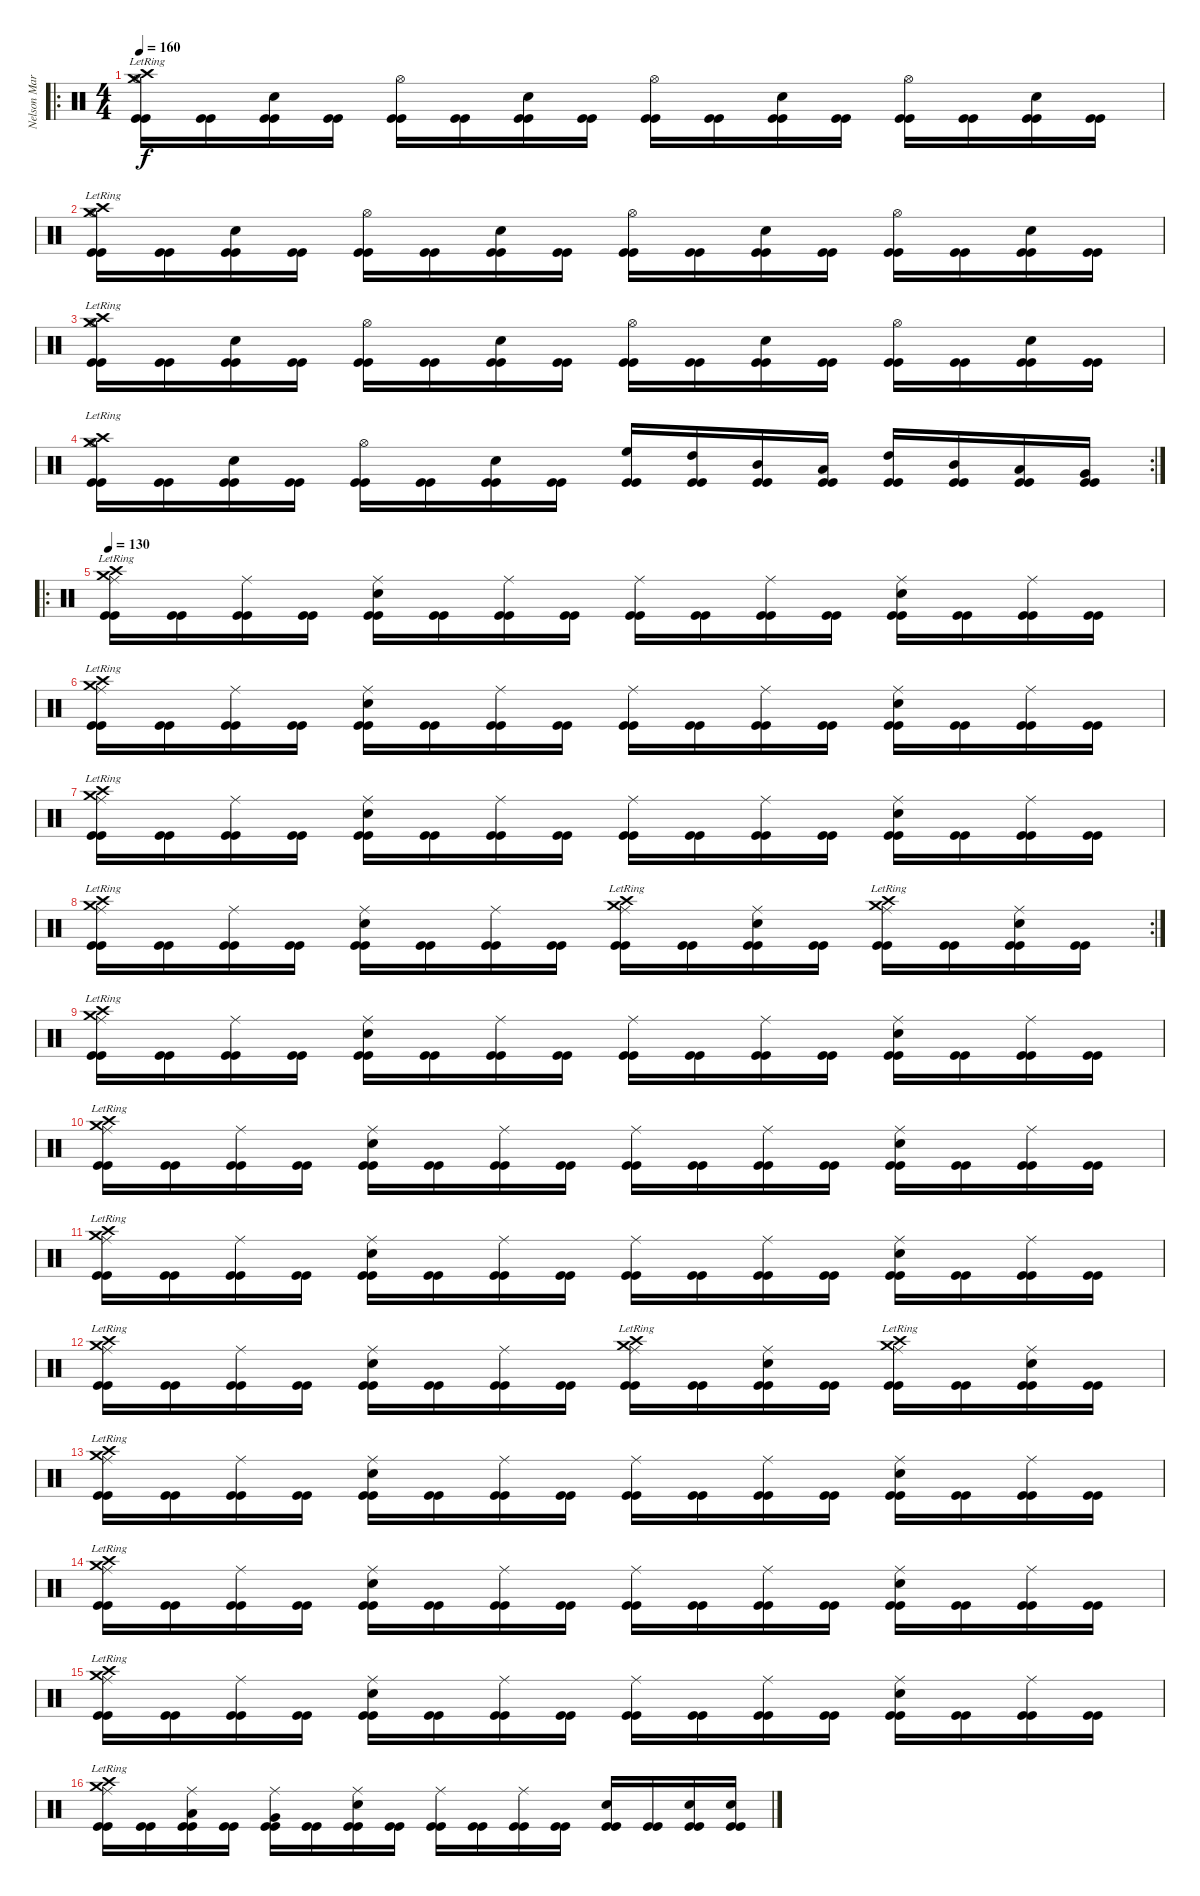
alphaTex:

\track ("Nelson Maria" "Nelson Mar") {instrument percussion}
\staff {score}
\articulation defaults
\ro
\ts (4 4)
\tempo 160
\clef neutral
\ks c
("Crash high (hit)"{lr} "Crash medium (hit)"{lr} "Hi-Hat (open)" "Kick (hit)" "Kick (hit)").16{dy f} ("Kick (hit)" "Kick (hit)").16 ("Snare (hit) 2" "Kick (hit)" "Kick (hit)").16 ("Kick (hit)" "Kick (hit)").16 ("Hi-Hat (open)" "Kick (hit)" "Kick (hit)").16 ("Kick (hit)" "Kick (hit)").16 ("Snare (hit) 2" "Kick (hit)" "Kick (hit)").16 ("Kick (hit)" "Kick (hit)").16 ("Hi-Hat (open)" "Kick (hit)" "Kick (hit)").16 ("Kick (hit)" "Kick (hit)").16 ("Snare (hit) 2" "Kick (hit)" "Kick (hit)").16 ("Kick (hit)" "Kick (hit)").16 ("Hi-Hat (open)" "Kick (hit)" "Kick (hit)").16 ("Kick (hit)" "Kick (hit)").16 ("Snare (hit) 2" "Kick (hit)" "Kick (hit)").16 ("Kick (hit)" "Kick (hit)").16 |
("Crash high (hit)"{lr} "Crash medium (hit)"{lr} "Hi-Hat (open)" "Kick (hit)" "Kick (hit)").16 ("Kick (hit)" "Kick (hit)").16 ("Snare (hit) 2" "Kick (hit)" "Kick (hit)").16 ("Kick (hit)" "Kick (hit)").16 ("Hi-Hat (open)" "Kick (hit)" "Kick (hit)").16 ("Kick (hit)" "Kick (hit)").16 ("Snare (hit) 2" "Kick (hit)" "Kick (hit)").16 ("Kick (hit)" "Kick (hit)").16 ("Hi-Hat (open)" "Kick (hit)" "Kick (hit)").16 ("Kick (hit)" "Kick (hit)").16 ("Snare (hit) 2" "Kick (hit)" "Kick (hit)").16 ("Kick (hit)" "Kick (hit)").16 ("Hi-Hat (open)" "Kick (hit)" "Kick (hit)").16 ("Kick (hit)" "Kick (hit)").16 ("Snare (hit) 2" "Kick (hit)" "Kick (hit)").16 ("Kick (hit)" "Kick (hit)").16 |
("Crash high (hit)"{lr} "Crash medium (hit)"{lr} "Hi-Hat (open)" "Kick (hit)" "Kick (hit)").16 ("Kick (hit)" "Kick (hit)").16 ("Snare (hit) 2" "Kick (hit)" "Kick (hit)").16 ("Kick (hit)" "Kick (hit)").16 ("Hi-Hat (open)" "Kick (hit)" "Kick (hit)").16 ("Kick (hit)" "Kick (hit)").16 ("Snare (hit) 2" "Kick (hit)" "Kick (hit)").16 ("Kick (hit)" "Kick (hit)").16 ("Hi-Hat (open)" "Kick (hit)" "Kick (hit)").16 ("Kick (hit)" "Kick (hit)").16 ("Snare (hit) 2" "Kick (hit)" "Kick (hit)").16 ("Kick (hit)" "Kick (hit)").16 ("Hi-Hat (open)" "Kick (hit)" "Kick (hit)").16 ("Kick (hit)" "Kick (hit)").16 ("Snare (hit) 2" "Kick (hit)" "Kick (hit)").16 ("Kick (hit)" "Kick (hit)").16 |
\rc 2
("Crash high (hit)"{lr} "Crash medium (hit)"{lr} "Hi-Hat (open)" "Kick (hit)" "Kick (hit)").16 ("Kick (hit)" "Kick (hit)").16 ("Snare (hit) 2" "Kick (hit)" "Kick (hit)").16 ("Kick (hit)" "Kick (hit)").16 ("Hi-Hat (open)" "Kick (hit)" "Kick (hit)").16 ("Kick (hit)" "Kick (hit)").16 ("Snare (hit) 2" "Kick (hit)" "Kick (hit)").16 ("Kick (hit)" "Kick (hit)").16 ("High Floor Tom (hit)" "Kick (hit)" "Kick (hit)").16 ("High Tom (hit)" "Kick (hit)" "Kick (hit)").16 ("Mid Tom (hit)" "Kick (hit)" "Kick (hit)").16 ("Low Tom (hit)" "Kick (hit)" "Kick (hit)").16 ("High Tom (hit)" "Kick (hit)" "Kick (hit)").16 ("Mid Tom (hit)" "Kick (hit)" "Kick (hit)").16 ("Low Tom (hit)" "Kick (hit)" "Kick (hit)").16 ("Very Low Tom (hit)" "Kick (hit)" "Kick (hit)").16 |
\ro
\tempo 130
("Crash high (hit)"{lr} "Crash medium (hit)"{lr} "Ride (middle)" "Kick (hit)" "Kick (hit)").16 ("Kick (hit)" "Kick (hit)").16 ("Ride (middle)" "Kick (hit)" "Kick (hit)").16 ("Kick (hit)" "Kick (hit)").16 ("Snare (hit) 2" "Ride (middle)" "Kick (hit)" "Kick (hit)").16 ("Kick (hit)" "Kick (hit)").16 ("Ride (middle)" "Kick (hit)" "Kick (hit)").16 ("Kick (hit)" "Kick (hit)").16 ("Ride (middle)" "Kick (hit)" "Kick (hit)").16 ("Kick (hit)" "Kick (hit)").16 ("Ride (middle)" "Kick (hit)" "Kick (hit)").16 ("Kick (hit)" "Kick (hit)").16 ("Snare (hit) 2" "Ride (middle)" "Kick (hit)" "Kick (hit)").16 ("Kick (hit)" "Kick (hit)").16 ("Ride (middle)" "Kick (hit)" "Kick (hit)").16 ("Kick (hit)" "Kick (hit)").16 |
("Crash high (hit)"{lr} "Crash medium (hit)"{lr} "Ride (middle)" "Kick (hit)" "Kick (hit)").16 ("Kick (hit)" "Kick (hit)").16 ("Ride (middle)" "Kick (hit)" "Kick (hit)").16 ("Kick (hit)" "Kick (hit)").16 ("Snare (hit) 2" "Ride (middle)" "Kick (hit)" "Kick (hit)").16 ("Kick (hit)" "Kick (hit)").16 ("Ride (middle)" "Kick (hit)" "Kick (hit)").16 ("Kick (hit)" "Kick (hit)").16 ("Ride (middle)" "Kick (hit)" "Kick (hit)").16 ("Kick (hit)" "Kick (hit)").16 ("Ride (middle)" "Kick (hit)" "Kick (hit)").16 ("Kick (hit)" "Kick (hit)").16 ("Snare (hit) 2" "Ride (middle)" "Kick (hit)" "Kick (hit)").16 ("Kick (hit)" "Kick (hit)").16 ("Ride (middle)" "Kick (hit)" "Kick (hit)").16 ("Kick (hit)" "Kick (hit)").16 |
("Crash high (hit)"{lr} "Crash medium (hit)"{lr} "Ride (middle)" "Kick (hit)" "Kick (hit)").16 ("Kick (hit)" "Kick (hit)").16 ("Ride (middle)" "Kick (hit)" "Kick (hit)").16 ("Kick (hit)" "Kick (hit)").16 ("Snare (hit) 2" "Ride (middle)" "Kick (hit)" "Kick (hit)").16 ("Kick (hit)" "Kick (hit)").16 ("Ride (middle)" "Kick (hit)" "Kick (hit)").16 ("Kick (hit)" "Kick (hit)").16 ("Ride (middle)" "Kick (hit)" "Kick (hit)").16 ("Kick (hit)" "Kick (hit)").16 ("Ride (middle)" "Kick (hit)" "Kick (hit)").16 ("Kick (hit)" "Kick (hit)").16 ("Snare (hit) 2" "Ride (middle)" "Kick (hit)" "Kick (hit)").16 ("Kick (hit)" "Kick (hit)").16 ("Ride (middle)" "Kick (hit)" "Kick (hit)").16 ("Kick (hit)" "Kick (hit)").16 |
\rc 2
("Crash high (hit)"{lr} "Crash medium (hit)"{lr} "Ride (middle)" "Kick (hit)" "Kick (hit)").16 ("Kick (hit)" "Kick (hit)").16 ("Ride (middle)" "Kick (hit)" "Kick (hit)").16 ("Kick (hit)" "Kick (hit)").16 ("Snare (hit) 2" "Ride (middle)" "Kick (hit)" "Kick (hit)").16 ("Kick (hit)" "Kick (hit)").16 ("Ride (middle)" "Kick (hit)" "Kick (hit)").16 ("Kick (hit)" "Kick (hit)").16 ("Crash high (hit)"{lr} "Crash medium (hit)"{lr} "Ride (middle)" "Kick (hit)" "Kick (hit)").16 ("Kick (hit)" "Kick (hit)").16 ("Snare (hit) 2" "Ride (middle)" "Kick (hit)" "Kick (hit)").16 ("Kick (hit)" "Kick (hit)").16 ("Crash high (hit)"{lr} "Crash medium (hit)"{lr} "Ride (middle)" "Kick (hit)" "Kick (hit)").16 ("Kick (hit)" "Kick (hit)").16 ("Snare (hit) 2" "Ride (middle)" "Kick (hit)" "Kick (hit)").16 ("Kick (hit)" "Kick (hit)").16 |
("Crash high (hit)"{lr} "Crash medium (hit)"{lr} "Ride (middle)" "Kick (hit)" "Kick (hit)").16 ("Kick (hit)" "Kick (hit)").16 ("Ride (middle)" "Kick (hit)" "Kick (hit)").16 ("Kick (hit)" "Kick (hit)").16 ("Snare (hit) 2" "Ride (middle)" "Kick (hit)" "Kick (hit)").16 ("Kick (hit)" "Kick (hit)").16 ("Ride (middle)" "Kick (hit)" "Kick (hit)").16 ("Kick (hit)" "Kick (hit)").16 ("Ride (middle)" "Kick (hit)" "Kick (hit)").16 ("Kick (hit)" "Kick (hit)").16 ("Ride (middle)" "Kick (hit)" "Kick (hit)").16 ("Kick (hit)" "Kick (hit)").16 ("Snare (hit) 2" "Ride (middle)" "Kick (hit)" "Kick (hit)").16 ("Kick (hit)" "Kick (hit)").16 ("Ride (middle)" "Kick (hit)" "Kick (hit)").16 ("Kick (hit)" "Kick (hit)").16 |
("Crash high (hit)"{lr} "Crash medium (hit)"{lr} "Ride (middle)" "Kick (hit)" "Kick (hit)").16 ("Kick (hit)" "Kick (hit)").16 ("Ride (middle)" "Kick (hit)" "Kick (hit)").16 ("Kick (hit)" "Kick (hit)").16 ("Snare (hit) 2" "Ride (middle)" "Kick (hit)" "Kick (hit)").16 ("Kick (hit)" "Kick (hit)").16 ("Ride (middle)" "Kick (hit)" "Kick (hit)").16 ("Kick (hit)" "Kick (hit)").16 ("Ride (middle)" "Kick (hit)" "Kick (hit)").16 ("Kick (hit)" "Kick (hit)").16 ("Ride (middle)" "Kick (hit)" "Kick (hit)").16 ("Kick (hit)" "Kick (hit)").16 ("Snare (hit) 2" "Ride (middle)" "Kick (hit)" "Kick (hit)").16 ("Kick (hit)" "Kick (hit)").16 ("Ride (middle)" "Kick (hit)" "Kick (hit)").16 ("Kick (hit)" "Kick (hit)").16 |
("Crash high (hit)"{lr} "Crash medium (hit)"{lr} "Ride (middle)" "Kick (hit)" "Kick (hit)").16 ("Kick (hit)" "Kick (hit)").16 ("Ride (middle)" "Kick (hit)" "Kick (hit)").16 ("Kick (hit)" "Kick (hit)").16 ("Snare (hit) 2" "Ride (middle)" "Kick (hit)" "Kick (hit)").16 ("Kick (hit)" "Kick (hit)").16 ("Ride (middle)" "Kick (hit)" "Kick (hit)").16 ("Kick (hit)" "Kick (hit)").16 ("Ride (middle)" "Kick (hit)" "Kick (hit)").16 ("Kick (hit)" "Kick (hit)").16 ("Ride (middle)" "Kick (hit)" "Kick (hit)").16 ("Kick (hit)" "Kick (hit)").16 ("Snare (hit) 2" "Ride (middle)" "Kick (hit)" "Kick (hit)").16 ("Kick (hit)" "Kick (hit)").16 ("Ride (middle)" "Kick (hit)" "Kick (hit)").16 ("Kick (hit)" "Kick (hit)").16 |
("Crash high (hit)"{lr} "Crash medium (hit)"{lr} "Ride (middle)" "Kick (hit)" "Kick (hit)").16 ("Kick (hit)" "Kick (hit)").16 ("Ride (middle)" "Kick (hit)" "Kick (hit)").16 ("Kick (hit)" "Kick (hit)").16 ("Snare (hit) 2" "Ride (middle)" "Kick (hit)" "Kick (hit)").16 ("Kick (hit)" "Kick (hit)").16 ("Ride (middle)" "Kick (hit)" "Kick (hit)").16 ("Kick (hit)" "Kick (hit)").16 ("Crash high (hit)"{lr} "Crash medium (hit)"{lr} "Ride (middle)" "Kick (hit)" "Kick (hit)").16 ("Kick (hit)" "Kick (hit)").16 ("Snare (hit) 2" "Ride (middle)" "Kick (hit)" "Kick (hit)").16 ("Kick (hit)" "Kick (hit)").16 ("Crash high (hit)"{lr} "Crash medium (hit)"{lr} "Ride (middle)" "Kick (hit)" "Kick (hit)").16 ("Kick (hit)" "Kick (hit)").16 ("Snare (hit) 2" "Ride (middle)" "Kick (hit)" "Kick (hit)").16 ("Kick (hit)" "Kick (hit)").16 |
("Crash high (hit)"{lr} "Crash medium (hit)"{lr} "Ride (middle)" "Kick (hit)" "Kick (hit)").16 ("Kick (hit)" "Kick (hit)").16 ("Ride (middle)" "Kick (hit)" "Kick (hit)").16 ("Kick (hit)" "Kick (hit)").16 ("Snare (hit) 2" "Ride (middle)" "Kick (hit)" "Kick (hit)").16 ("Kick (hit)" "Kick (hit)").16 ("Ride (middle)" "Kick (hit)" "Kick (hit)").16 ("Kick (hit)" "Kick (hit)").16 ("Ride (middle)" "Kick (hit)" "Kick (hit)").16 ("Kick (hit)" "Kick (hit)").16 ("Ride (middle)" "Kick (hit)" "Kick (hit)").16 ("Kick (hit)" "Kick (hit)").16 ("Snare (hit) 2" "Ride (middle)" "Kick (hit)" "Kick (hit)").16 ("Kick (hit)" "Kick (hit)").16 ("Ride (middle)" "Kick (hit)" "Kick (hit)").16 ("Kick (hit)" "Kick (hit)").16 |
("Crash high (hit)"{lr} "Crash medium (hit)"{lr} "Ride (middle)" "Kick (hit)" "Kick (hit)").16 ("Kick (hit)" "Kick (hit)").16 ("Ride (middle)" "Kick (hit)" "Kick (hit)").16 ("Kick (hit)" "Kick (hit)").16 ("Snare (hit) 2" "Ride (middle)" "Kick (hit)" "Kick (hit)").16 ("Kick (hit)" "Kick (hit)").16 ("Ride (middle)" "Kick (hit)" "Kick (hit)").16 ("Kick (hit)" "Kick (hit)").16 ("Ride (middle)" "Kick (hit)" "Kick (hit)").16 ("Kick (hit)" "Kick (hit)").16 ("Ride (middle)" "Kick (hit)" "Kick (hit)").16 ("Kick (hit)" "Kick (hit)").16 ("Snare (hit) 2" "Ride (middle)" "Kick (hit)" "Kick (hit)").16 ("Kick (hit)" "Kick (hit)").16 ("Ride (middle)" "Kick (hit)" "Kick (hit)").16 ("Kick (hit)" "Kick (hit)").16 |
("Crash high (hit)"{lr} "Crash medium (hit)"{lr} "Ride (middle)" "Kick (hit)" "Kick (hit)").16 ("Kick (hit)" "Kick (hit)").16 ("Ride (middle)" "Kick (hit)" "Kick (hit)").16 ("Kick (hit)" "Kick (hit)").16 ("Snare (hit) 2" "Ride (middle)" "Kick (hit)" "Kick (hit)").16 ("Kick (hit)" "Kick (hit)").16 ("Ride (middle)" "Kick (hit)" "Kick (hit)").16 ("Kick (hit)" "Kick (hit)").16 ("Ride (middle)" "Kick (hit)" "Kick (hit)").16 ("Kick (hit)" "Kick (hit)").16 ("Ride (middle)" "Kick (hit)" "Kick (hit)").16 ("Kick (hit)" "Kick (hit)").16 ("Snare (hit) 2" "Ride (middle)" "Kick (hit)" "Kick (hit)").16 ("Kick (hit)" "Kick (hit)").16 ("Ride (middle)" "Kick (hit)" "Kick (hit)").16 ("Kick (hit)" "Kick (hit)").16 |
("Crash high (hit)"{lr} "Crash medium (hit)"{lr} "Ride (middle)" "Kick (hit)" "Kick (hit)").16 ("Kick (hit)" "Kick (hit)").16 ("Low Tom (hit)" "Ride (middle)" "Kick (hit)" "Kick (hit)").16 ("Kick (hit)" "Kick (hit)").16 ("Very Low Tom (hit)" "Ride (middle)" "Kick (hit)" "Kick (hit)").16 ("Kick (hit)" "Kick (hit)").16 ("Snare (hit) 2" "Ride (middle)" "Kick (hit)" "Kick (hit)").16 ("Kick (hit)" "Kick (hit)").16 ("Ride (middle)" "Kick (hit)" "Kick (hit)").16 ("Kick (hit)" "Kick (hit)").16 ("Ride (middle)" "Kick (hit)" "Kick (hit)").16 ("Kick (hit)" "Kick (hit)").16 ("Snare (hit) 2" "Kick (hit)" "Kick (hit)").16 ("Kick (hit)" "Kick (hit)").16 ("Snare (hit) 2" "Kick (hit)" "Kick (hit)").16 ("Snare (hit) 2" "Kick (hit)" "Kick (hit)").16
